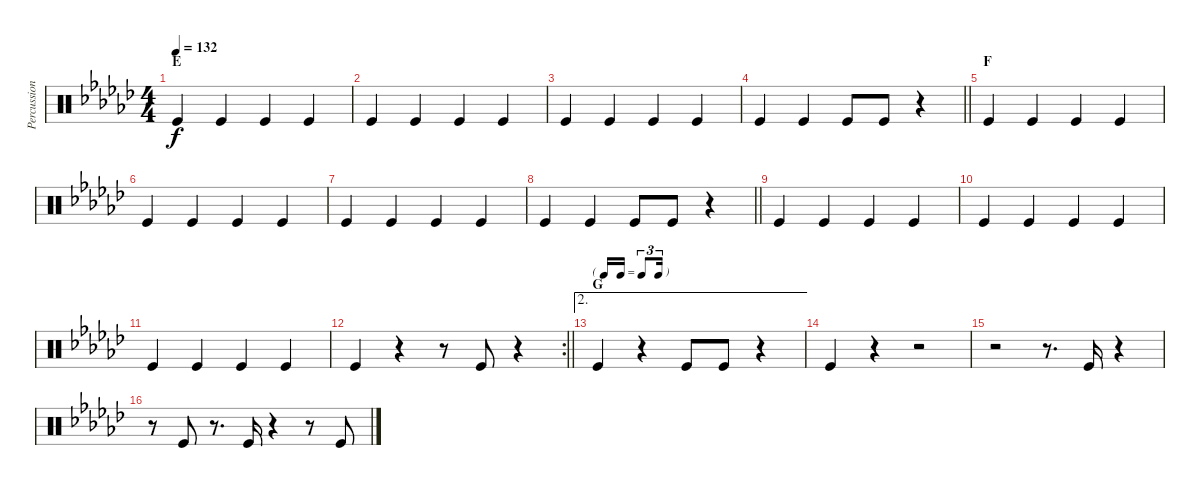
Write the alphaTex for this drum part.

\track ("Percussion foot" "Percussion") {instrument percussion}
\staff {score}
\articulation defaults
\ts (4 4)
\section ("" "E")
\tempo 132
\clef neutral
\ks gb "Kick (hit)".4{dy f} "Kick (hit)".4 "Kick (hit)".4 "Kick (hit)".4
|
"Kick (hit)".4 "Kick (hit)".4 "Kick (hit)".4 "Kick (hit)".4 |
"Kick (hit)".4 "Kick (hit)".4 "Kick (hit)".4 "Kick (hit)".4 |
\barLineRight lightlight "Kick (hit)".4 "Kick (hit)".4 "Kick (hit)".8 "Kick (hit)".8
r.4 |
\section ("" "F")
"Kick (hit)".4 "Kick (hit)".4 "Kick (hit)".4 "Kick (hit)".4 |
"Kick (hit)".4 "Kick (hit)".4 "Kick (hit)".4 "Kick (hit)".4 |
"Kick (hit)".4 "Kick (hit)".4 "Kick (hit)".4 "Kick (hit)".4 |
\barLineRight lightlight "Kick (hit)".4 "Kick (hit)".4 "Kick (hit)".8 "Kick (hit)".8
r.4 |
"Kick (hit)".4 "Kick (hit)".4 "Kick (hit)".4 "Kick (hit)".4 |
"Kick (hit)".4 "Kick (hit)".4 "Kick (hit)".4 "Kick (hit)".4 |
"Kick (hit)".4 "Kick (hit)".4 "Kick (hit)".4 "Kick (hit)".4 |
\rc 2
\barLineRight lightlight "Kick (hit)".4
r.4 r.8 "Kick (hit)".8 r.4 |
\ae 2
\tf triplet16th
\section ("" "G")
"Kick (hit)".4 r.4 "Kick (hit)".8 "Kick (hit)".8 r.4 |
"Kick (hit)".4 r.4 r.2 |
r.2 r.8{d} "Kick (hit)".16 r.4 |
r.8 "Kick (hit)".8 r.8{d} "Kick (hit)".16 r.4 r.8 "Kick (hit)".8
